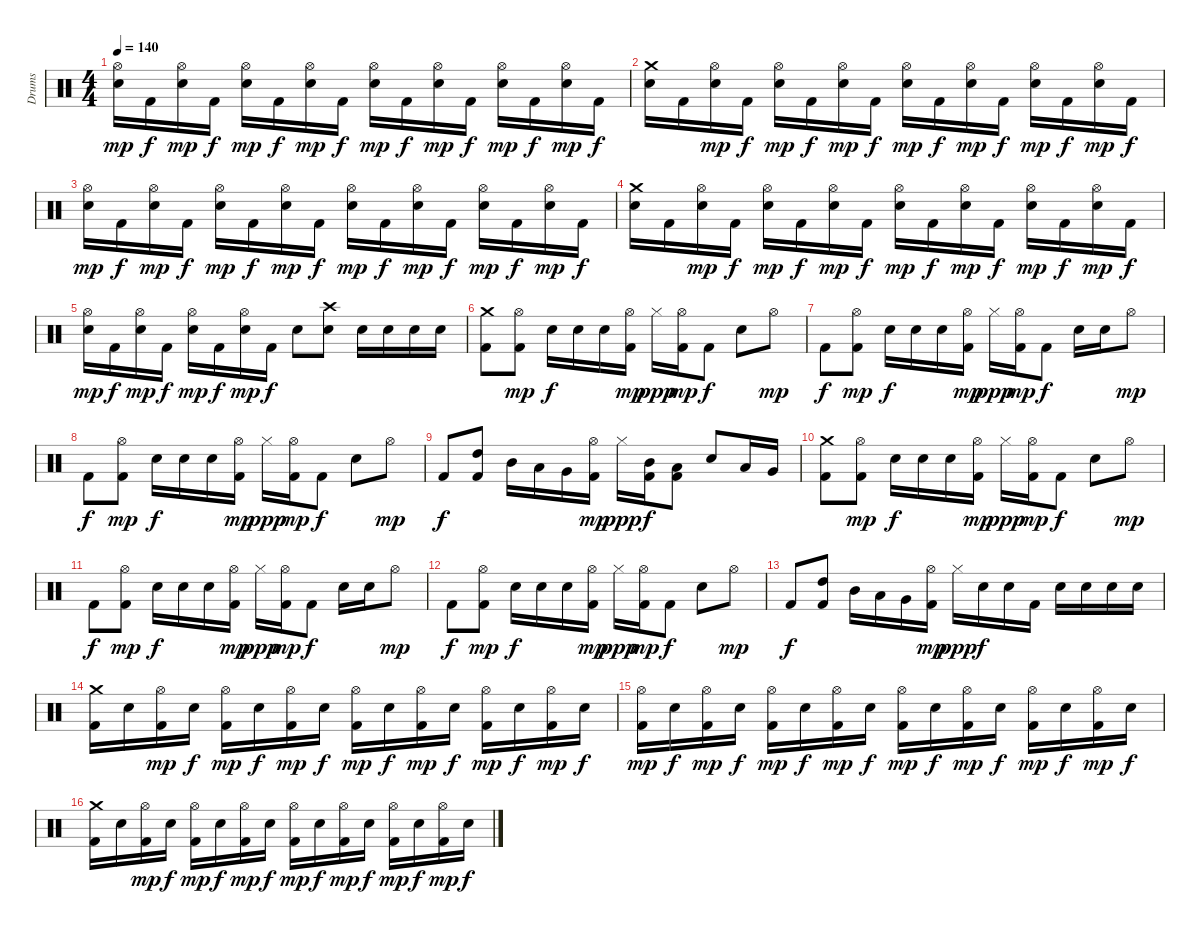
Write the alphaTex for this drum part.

\track ("Drums" "Drums") {instrument percussion}
\staff {score}
\articulation defaults
\ts (4 4)
\tempo 140
\clef neutral
\ks c
("Hi-Hat (open)" "Snare (hit) 2").16{dy mp} "Kick (hit) 2".16{dy f} ("Hi-Hat (open)" "Snare (hit) 2").16{dy mp} "Kick (hit) 2".16{dy f} ("Hi-Hat (open)" "Snare (hit) 2").16{dy mp} "Kick (hit) 2".16{dy f} ("Hi-Hat (open)" "Snare (hit) 2").16{dy mp} "Kick (hit) 2".16{dy f} ("Hi-Hat (open)" "Snare (hit) 2").16{dy mp} "Kick (hit) 2".16{dy f} ("Hi-Hat (open)" "Snare (hit) 2").16{dy mp} "Kick (hit) 2".16{dy f} ("Hi-Hat (open)" "Snare (hit) 2").16{dy mp} "Kick (hit) 2".16{dy f} ("Hi-Hat (open)" "Snare (hit) 2").16{dy mp} "Kick (hit) 2".16{dy f} |
("Crash medium (hit)" "Snare (hit) 2").16 "Kick (hit) 2".16 ("Hi-Hat (open)" "Snare (hit) 2").16{dy mp} "Kick (hit) 2".16{dy f} ("Hi-Hat (open)" "Snare (hit) 2").16{dy mp} "Kick (hit) 2".16{dy f} ("Hi-Hat (open)" "Snare (hit) 2").16{dy mp} "Kick (hit) 2".16{dy f} ("Hi-Hat (open)" "Snare (hit) 2").16{dy mp} "Kick (hit) 2".16{dy f} ("Hi-Hat (open)" "Snare (hit) 2").16{dy mp} "Kick (hit) 2".16{dy f} ("Hi-Hat (open)" "Snare (hit) 2").16{dy mp} "Kick (hit) 2".16{dy f} ("Hi-Hat (open)" "Snare (hit) 2").16{dy mp} "Kick (hit) 2".16{dy f} |
("Hi-Hat (open)" "Snare (hit) 2").16{dy mp} "Kick (hit) 2".16{dy f} ("Hi-Hat (open)" "Snare (hit) 2").16{dy mp} "Kick (hit) 2".16{dy f} ("Hi-Hat (open)" "Snare (hit) 2").16{dy mp} "Kick (hit) 2".16{dy f} ("Hi-Hat (open)" "Snare (hit) 2").16{dy mp} "Kick (hit) 2".16{dy f} ("Hi-Hat (open)" "Snare (hit) 2").16{dy mp} "Kick (hit) 2".16{dy f} ("Hi-Hat (open)" "Snare (hit) 2").16{dy mp} "Kick (hit) 2".16{dy f} ("Hi-Hat (open)" "Snare (hit) 2").16{dy mp} "Kick (hit) 2".16{dy f} ("Hi-Hat (open)" "Snare (hit) 2").16{dy mp} "Kick (hit) 2".16{dy f} |
("Crash medium (hit)" "Snare (hit) 2").16 "Kick (hit) 2".16 ("Hi-Hat (open)" "Snare (hit) 2").16{dy mp} "Kick (hit) 2".16{dy f} ("Hi-Hat (open)" "Snare (hit) 2").16{dy mp} "Kick (hit) 2".16{dy f} ("Hi-Hat (open)" "Snare (hit) 2").16{dy mp} "Kick (hit) 2".16{dy f} ("Hi-Hat (open)" "Snare (hit) 2").16{dy mp} "Kick (hit) 2".16{dy f} ("Hi-Hat (open)" "Snare (hit) 2").16{dy mp} "Kick (hit) 2".16{dy f} ("Hi-Hat (open)" "Snare (hit) 2").16{dy mp} "Kick (hit) 2".16{dy f} ("Hi-Hat (open)" "Snare (hit) 2").16{dy mp} "Kick (hit) 2".16{dy f} |
("Hi-Hat (open)" "Snare (hit) 2").16{dy mp} "Kick (hit) 2".16{dy f} ("Hi-Hat (open)" "Snare (hit) 2").16{dy mp} "Kick (hit) 2".16{dy f} ("Hi-Hat (open)" "Snare (hit) 2").16{dy mp} "Kick (hit) 2".16{dy f} ("Hi-Hat (open)" "Snare (hit) 2").16{dy mp} "Kick (hit) 2".16{dy f} "Snare (hit) 2".8 ("Crash high (hit)" "Snare (hit) 2").8 "Snare (hit) 2".16 "Snare (hit) 2".16 "Snare (hit) 2".16 "Snare (hit) 2".16 |
("Crash medium (hit)" "Kick (hit) 2").8 ("Hi-Hat (open)" "Kick (hit) 2").8{dy mp} "Snare (hit) 2".16{dy f} "Snare (hit) 2".16 "Snare (hit) 2".16 ("Hi-Hat (open)" "Kick (hit) 2").16{dy mp} "Hi-Hat (closed)".16{dy ppp} ("Hi-Hat (open)" "Kick (hit) 2").16{dy mp} "Kick (hit) 2".8{dy f} "Snare (hit) 2".8 "Hi-Hat (open)".8{dy mp} |
"Kick (hit) 2".8{dy f} ("Hi-Hat (open)" "Kick (hit) 2").8{dy mp} "Snare (hit) 2".16{dy f} "Snare (hit) 2".16 "Snare (hit) 2".16 ("Hi-Hat (open)" "Kick (hit) 2").16{dy mp} "Hi-Hat (closed)".16{dy ppp} ("Hi-Hat (open)" "Kick (hit) 2").16{dy mp} "Kick (hit) 2".8{dy f} "Snare (hit) 2".16 "Snare (hit) 2".16 "Hi-Hat (open)".8{dy mp} |
"Kick (hit) 2".8{dy f} ("Hi-Hat (open)" "Kick (hit) 2").8{dy mp} "Snare (hit) 2".16{dy f} "Snare (hit) 2".16 "Snare (hit) 2".16 ("Hi-Hat (open)" "Kick (hit) 2").16{dy mp} "Hi-Hat (closed)".16{dy ppp} ("Hi-Hat (open)" "Kick (hit) 2").16{dy mp} "Kick (hit) 2".8{dy f} "Snare (hit) 2".8 "Hi-Hat (open)".8{dy mp} |
"Kick (hit) 2".8{dy f} ("High Tom (hit)" "Kick (hit) 2").8 "Mid Tom (hit)".16 "Low Tom (hit)".16 "Very Low Tom (hit)".16 ("Hi-Hat (open)" "Kick (hit) 2").16{dy mp} "Hi-Hat (closed)".16{dy ppp} ("Mid Tom (hit)" "Kick (hit) 2").16{dy f} ("Low Tom (hit)" "Kick (hit) 2").8 "Snare (hit) 2".8 "Low Tom (hit)".16 "Very Low Tom (hit)".16 |
("Crash medium (hit)" "Kick (hit) 2").8 ("Hi-Hat (open)" "Kick (hit) 2").8{dy mp} "Snare (hit) 2".16{dy f} "Snare (hit) 2".16 "Snare (hit) 2".16 ("Hi-Hat (open)" "Kick (hit) 2").16{dy mp} "Hi-Hat (closed)".16{dy ppp} ("Hi-Hat (open)" "Kick (hit) 2").16{dy mp} "Kick (hit) 2".8{dy f} "Snare (hit) 2".8 "Hi-Hat (open)".8{dy mp} |
"Kick (hit) 2".8{dy f} ("Hi-Hat (open)" "Kick (hit) 2").8{dy mp} "Snare (hit) 2".16{dy f} "Snare (hit) 2".16 "Snare (hit) 2".16 ("Hi-Hat (open)" "Kick (hit) 2").16{dy mp} "Hi-Hat (closed)".16{dy ppp} ("Hi-Hat (open)" "Kick (hit) 2").16{dy mp} "Kick (hit) 2".8{dy f} "Snare (hit) 2".16 "Snare (hit) 2".16 "Hi-Hat (open)".8{dy mp} |
"Kick (hit) 2".8{dy f} ("Hi-Hat (open)" "Kick (hit) 2").8{dy mp} "Snare (hit) 2".16{dy f} "Snare (hit) 2".16 "Snare (hit) 2".16 ("Hi-Hat (open)" "Kick (hit) 2").16{dy mp} "Hi-Hat (closed)".16{dy ppp} ("Hi-Hat (open)" "Kick (hit) 2").16{dy mp} "Kick (hit) 2".8{dy f} "Snare (hit) 2".8 "Hi-Hat (open)".8{dy mp} |
"Kick (hit) 2".8{dy f} ("High Tom (hit)" "Kick (hit) 2").8 "Mid Tom (hit)".16 "Low Tom (hit)".16 "Very Low Tom (hit)".16 ("Hi-Hat (open)" "Kick (hit) 2").16{dy mp} "Hi-Hat (closed)".16{dy ppp} "Snare (hit) 2".16{dy f} "Snare (hit) 2".16 "Kick (hit) 2".16 "Snare (hit) 2".16 "Snare (hit) 2".16 "Snare (hit) 2".16 "Snare (hit) 2".16 |
("Crash medium (hit)" "Kick (hit) 2").16 "Snare (hit) 2".16 ("Hi-Hat (open)" "Kick (hit) 2").16{dy mp} "Snare (hit) 2".16{dy f} ("Hi-Hat (open)" "Kick (hit) 2").16{dy mp} "Snare (hit) 2".16{dy f} ("Hi-Hat (open)" "Kick (hit) 2").16{dy mp} "Snare (hit) 2".16{dy f} ("Hi-Hat (open)" "Kick (hit) 2").16{dy mp} "Snare (hit) 2".16{dy f} ("Hi-Hat (open)" "Kick (hit) 2").16{dy mp} "Snare (hit) 2".16{dy f} ("Hi-Hat (open)" "Kick (hit) 2").16{dy mp} "Snare (hit) 2".16{dy f} ("Hi-Hat (open)" "Kick (hit) 2").16{dy mp} "Snare (hit) 2".16{dy f} |
("Hi-Hat (open)" "Kick (hit) 2").16{dy mp} "Snare (hit) 2".16{dy f} ("Hi-Hat (open)" "Kick (hit) 2").16{dy mp} "Snare (hit) 2".16{dy f} ("Hi-Hat (open)" "Kick (hit) 2").16{dy mp} "Snare (hit) 2".16{dy f} ("Hi-Hat (open)" "Kick (hit) 2").16{dy mp} "Snare (hit) 2".16{dy f} ("Hi-Hat (open)" "Kick (hit) 2").16{dy mp} "Snare (hit) 2".16{dy f} ("Hi-Hat (open)" "Kick (hit) 2").16{dy mp} "Snare (hit) 2".16{dy f} ("Hi-Hat (open)" "Kick (hit) 2").16{dy mp} "Snare (hit) 2".16{dy f} ("Hi-Hat (open)" "Kick (hit) 2").16{dy mp} "Snare (hit) 2".16{dy f} |
("Crash medium (hit)" "Kick (hit) 2").16 "Snare (hit) 2".16 ("Hi-Hat (open)" "Kick (hit) 2").16{dy mp} "Snare (hit) 2".16{dy f} ("Hi-Hat (open)" "Kick (hit) 2").16{dy mp} "Snare (hit) 2".16{dy f} ("Hi-Hat (open)" "Kick (hit) 2").16{dy mp} "Snare (hit) 2".16{dy f} ("Hi-Hat (open)" "Kick (hit) 2").16{dy mp} "Snare (hit) 2".16{dy f} ("Hi-Hat (open)" "Kick (hit) 2").16{dy mp} "Snare (hit) 2".16{dy f} ("Hi-Hat (open)" "Kick (hit) 2").16{dy mp} "Snare (hit) 2".16{dy f} ("Hi-Hat (open)" "Kick (hit) 2").16{dy mp} "Snare (hit) 2".16{dy f}
